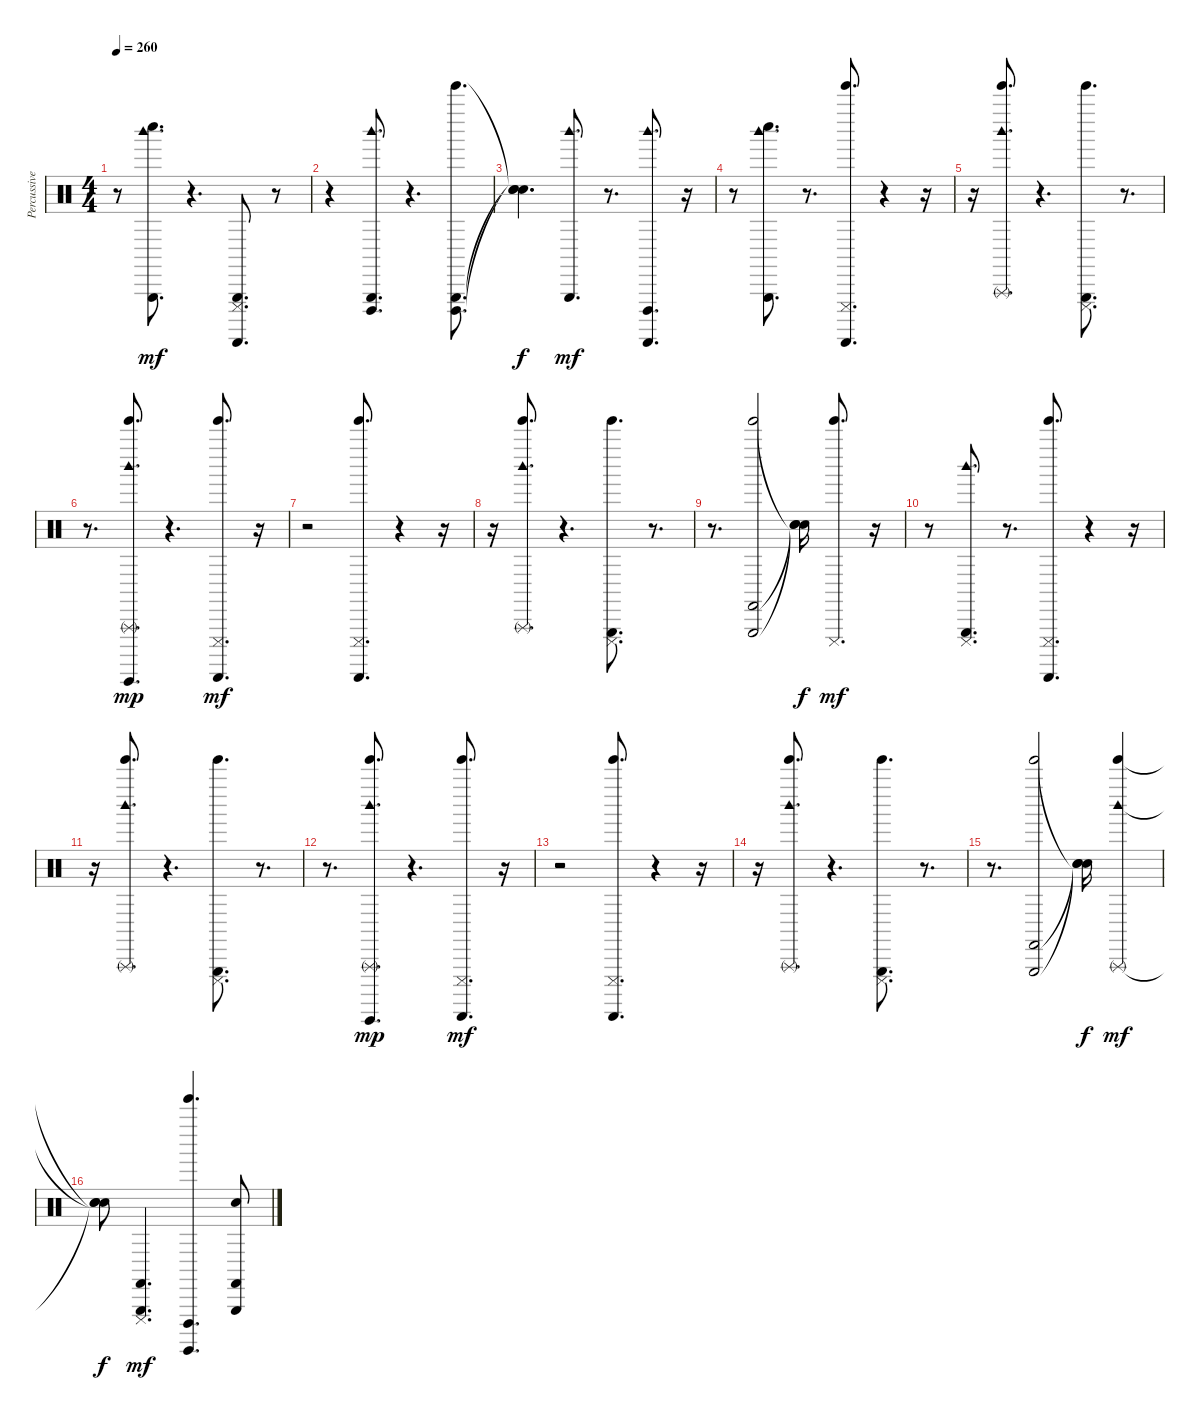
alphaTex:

\track ("Percussive Organ" "Percussive") {instrument percussion}
\staff {score}
\articulation defaults
\ts (4 4)
\tempo 260
\clef neutral
\ks c
r.8{dy mf} ("Whistle low (hit)" "Triangle (hit)" "Woodblock high (hit)").8{d} r.4{d} ("Guiro (scrap-return)" "Triangle (hit)" "Cuica (mute)").8{d} r.8 |
r.4 ("Woodblock high (hit)" "Triangle (hit)" "Cuica (open)").8{d} r.4{d} ("Cuica (open)" "Tinkle Bell (hit)" "Triangle (hit)").8{d} |
("Snare (hit)"{t} "Snare (hit)"{t} "Snare (hit)"{t}).4{d dy f} ("Woodblock high (hit)" "Triangle (hit)").8{d dy mf} r.8{d} ("Guiro (scrap-return)" "Cuica (open)" "Woodblock high (hit)").8{d} r.16 |
r.8 ("Whistle low (hit)" "Triangle (hit)" "Woodblock high (hit)").8{d} r.8{d} ("Guiro (scrap-return)" "Tinkle Bell (hit)" "Cuica (mute)").8{d} r.4 r.16 |
r.16 ("Woodblock high (hit)" "Tinkle Bell (hit)" "Triangle (rnute)").8{d} r.4{d} ("Cuica (mute)" "Tinkle Bell (hit)" "Triangle (hit)").8{d} r.8{d} |
r.8{d} ("Guiro (hit)" "Tinkle Bell (hit)" "Triangle (rnute)" "Woodblock high (hit)").8{d dy mp} r.4{d} ("Guiro (scrap-return)" "Tinkle Bell (hit)" "Cuica (mute)").8{d dy mf} r.16 |
r.2 ("Guiro (scrap-return)" "Tinkle Bell (hit)" "Cuica (mute)").8{d} r.4 r.16 |
r.16 ("Woodblock high (hit)" "Tinkle Bell (hit)" "Triangle (rnute)").8{d} r.4{d} ("Cuica (mute)" "Tinkle Bell (hit)" "Triangle (hit)").8{d} r.8{d} |
r.8{d} ("Triangle (hit)" "Castanets (hit)" "Tinkle Bell (hit)").2 ("Snare (hit)"{t} "Snare (hit)"{t} "Snare (hit)"{t}).16{dy f} ("Cuica (mute)" "Tinkle Bell (hit)").8{d dy mf} r.16 |
r.8 ("Woodblock high (hit)" "Triangle (hit)" "Cuica (mute)").8{d} r.8{d} ("Guiro (scrap-return)" "Tinkle Bell (hit)" "Cuica (mute)").8{d} r.4 r.16 |
r.16 ("Woodblock high (hit)" "Tinkle Bell (hit)" "Triangle (rnute)").8{d} r.4{d} ("Cuica (mute)" "Tinkle Bell (hit)" "Triangle (hit)").8{d} r.8{d} |
r.8{d} ("Guiro (hit)" "Tinkle Bell (hit)" "Triangle (rnute)" "Woodblock high (hit)").8{d dy mp} r.4{d} ("Guiro (scrap-return)" "Tinkle Bell (hit)" "Cuica (mute)").8{d dy mf} r.16 |
r.2 ("Guiro (scrap-return)" "Tinkle Bell (hit)" "Cuica (mute)").8{d} r.4 r.16 |
r.16 ("Woodblock high (hit)" "Tinkle Bell (hit)" "Triangle (rnute)").8{d} r.4{d} ("Cuica (mute)" "Tinkle Bell (hit)" "Triangle (hit)").8{d} r.8{d} |
r.8{d} ("Triangle (hit)" "Castanets (hit)" "Tinkle Bell (hit)").2 ("Snare (hit)"{t} "Snare (hit)"{t} "Snare (hit)"{t}).16{dy f} ("Woodblock high (hit)" "Tinkle Bell (hit)" "Triangle (rnute)").4{dy mf} |
("Snare (hit)"{t} "Snare (hit)"{t} "Snare (hit)"{t}).8{dy f} ("Cuica (mute)" "Castanets (hit)" "Triangle (hit)").4{d dy mf} ("Cuica (open)" "Surdo (hit)" "Tinkle Bell (hit)").4{d} ("Triangle (hit)" "Snare (hit)" "Castanets (hit)").8
